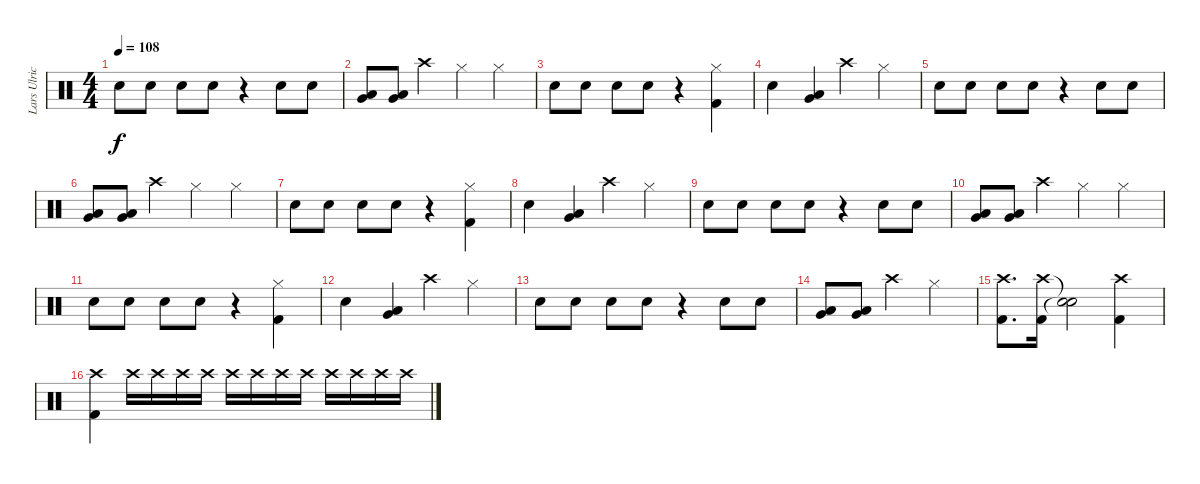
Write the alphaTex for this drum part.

\track ("Lars Ulrich" "Lars Ulric") {instrument percussion}
\staff {score}
\articulation defaults
\ts (4 4)
\tempo 108
\clef neutral
\ks c "Electric Snare (hit)".8{dy f} "Electric Snare (hit)".8 "Electric Snare (hit)".8 "Electric Snare (hit)".8
r.4 "Electric Snare (hit)".8 "Electric Snare (hit)".8 |
("Very Low Tom (hit)" "Low Floor Tom (hit)").8 ("Very Low Tom (hit)" "Low Floor Tom (hit)").8 "Crash high (hit)".4 "Hi-Hat (closed)".4 "Hi-Hat (closed)".4 |
"Electric Snare (hit)".8 "Electric Snare (hit)".8 "Electric Snare (hit)".8 "Electric Snare (hit)".8 r.4 ("Hi-Hat (closed)" "Kick (hit) 2").4 |
"Electric Snare (hit)".4 ("Low Floor Tom (hit)" "Very Low Tom (hit)").4 "Crash high (hit)".4 "Hi-Hat (closed)".4 |
"Electric Snare (hit)".8 "Electric Snare (hit)".8 "Electric Snare (hit)".8 "Electric Snare (hit)".8 r.4 "Electric Snare (hit)".8 "Electric Snare (hit)".8 |
("Very Low Tom (hit)" "Low Floor Tom (hit)").8 ("Very Low Tom (hit)" "Low Floor Tom (hit)").8 "Crash high (hit)".4 "Hi-Hat (closed)".4 "Hi-Hat (closed)".4 |
"Electric Snare (hit)".8 "Electric Snare (hit)".8 "Electric Snare (hit)".8 "Electric Snare (hit)".8 r.4 ("Hi-Hat (closed)" "Kick (hit) 2").4 |
"Electric Snare (hit)".4 ("Low Floor Tom (hit)" "Very Low Tom (hit)").4 "Crash high (hit)".4 "Hi-Hat (closed)".4 |
"Electric Snare (hit)".8 "Electric Snare (hit)".8 "Electric Snare (hit)".8 "Electric Snare (hit)".8 r.4 "Electric Snare (hit)".8 "Electric Snare (hit)".8 |
("Very Low Tom (hit)" "Low Floor Tom (hit)").8 ("Very Low Tom (hit)" "Low Floor Tom (hit)").8 "Crash high (hit)".4 "Hi-Hat (closed)".4 "Hi-Hat (closed)".4 |
"Electric Snare (hit)".8 "Electric Snare (hit)".8 "Electric Snare (hit)".8 "Electric Snare (hit)".8 r.4 ("Hi-Hat (closed)" "Kick (hit) 2").4 |
"Electric Snare (hit)".4 ("Low Floor Tom (hit)" "Very Low Tom (hit)").4 "Crash high (hit)".4 "Hi-Hat (closed)".4 |
"Electric Snare (hit)".8 "Electric Snare (hit)".8 "Electric Snare (hit)".8 "Electric Snare (hit)".8 r.4 "Electric Snare (hit)".8 "Electric Snare (hit)".8 |
("Very Low Tom (hit)" "Low Floor Tom (hit)").8 ("Very Low Tom (hit)" "Low Floor Tom (hit)").8 "Crash high (hit)".4 "Hi-Hat (closed)".4 |
("Crash high (hit)" "Kick (hit) 2").8{d} ("Crash high (hit)" "Kick (hit) 2").16 ("Snare (hit)"{t} "Snare (hit)"{t}).2 ("Crash high (hit)" "Kick (hit) 2").4 |
("Crash high (hit)" "Kick (hit) 2").4 "Crash high (hit)".16 "Crash high (hit)".16 "Crash high (hit)".16 "Crash high (hit)".16 "Crash high (hit)".16 "Crash high (hit)".16 "Crash high (hit)".16 "Crash high (hit)".16 "Crash high (hit)".16 "Crash high (hit)".16 "Crash high (hit)".16 "Crash high (hit)".16
